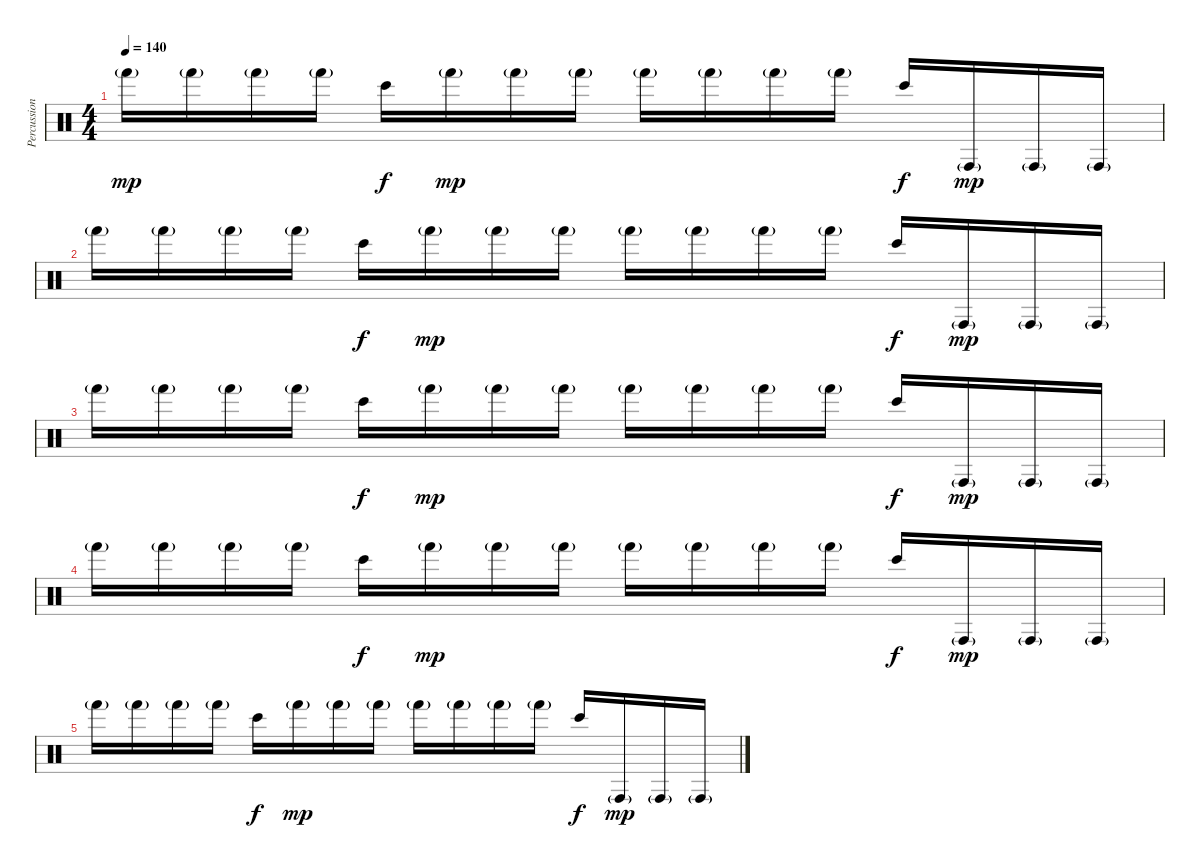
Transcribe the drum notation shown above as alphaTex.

\track ("Percussions" "Percussion") {instrument percussion}
\staff {score}
\articulation defaults
\ts (4 4)
\tempo 140
\clef neutral
\ks c "Hand (hit)"{g}.16{dy mp} "Hand (hit)"{g}.16 "Hand (hit)"{g}.16 "Hand (hit)"{g}.16 "Bongo High (hit)".16{dy f} "Hand (hit)"{g}.16{dy mp} "Hand (hit)"{g}.16 "Hand (hit)"{g}.16 "Hand (hit)"{g}.16 "Hand (hit)"{g}.16 "Hand (hit)"{g}.16 "Hand (hit)"{g}.16 "Bongo High (hit)".16{dy f} "Conga high (hit)"{g}.16{dy mp} "Conga high (hit)"{g}.16 "Conga high (hit)"{g}.16
|
"Hand (hit)"{g}.16 "Hand (hit)"{g}.16 "Hand (hit)"{g}.16 "Hand (hit)"{g}.16 "Bongo High (hit)".16{dy f} "Hand (hit)"{g}.16{dy mp} "Hand (hit)"{g}.16 "Hand (hit)"{g}.16 "Hand (hit)"{g}.16 "Hand (hit)"{g}.16 "Hand (hit)"{g}.16 "Hand (hit)"{g}.16 "Bongo High (hit)".16{dy f} "Conga high (hit)"{g}.16{dy mp} "Conga high (hit)"{g}.16 "Conga high (hit)"{g}.16 |
"Hand (hit)"{g}.16 "Hand (hit)"{g}.16 "Hand (hit)"{g}.16 "Hand (hit)"{g}.16 "Bongo High (hit)".16{dy f} "Hand (hit)"{g}.16{dy mp} "Hand (hit)"{g}.16 "Hand (hit)"{g}.16 "Hand (hit)"{g}.16 "Hand (hit)"{g}.16 "Hand (hit)"{g}.16 "Hand (hit)"{g}.16 "Bongo High (hit)".16{dy f} "Conga high (hit)"{g}.16{dy mp} "Conga high (hit)"{g}.16 "Conga high (hit)"{g}.16 |
"Hand (hit)"{g}.16 "Hand (hit)"{g}.16 "Hand (hit)"{g}.16 "Hand (hit)"{g}.16 "Bongo High (hit)".16{dy f} "Hand (hit)"{g}.16{dy mp} "Hand (hit)"{g}.16 "Hand (hit)"{g}.16 "Hand (hit)"{g}.16 "Hand (hit)"{g}.16 "Hand (hit)"{g}.16 "Hand (hit)"{g}.16 "Bongo High (hit)".16{dy f} "Conga high (hit)"{g}.16{dy mp} "Conga high (hit)"{g}.16 "Conga high (hit)"{g}.16 |
"Hand (hit)"{g}.16 "Hand (hit)"{g}.16 "Hand (hit)"{g}.16 "Hand (hit)"{g}.16 "Bongo High (hit)".16{dy f} "Hand (hit)"{g}.16{dy mp} "Hand (hit)"{g}.16 "Hand (hit)"{g}.16 "Hand (hit)"{g}.16 "Hand (hit)"{g}.16 "Hand (hit)"{g}.16 "Hand (hit)"{g}.16 "Bongo High (hit)".16{dy f} "Conga high (hit)"{g}.16{dy mp} "Conga high (hit)"{g}.16 "Conga high (hit)"{g}.16
